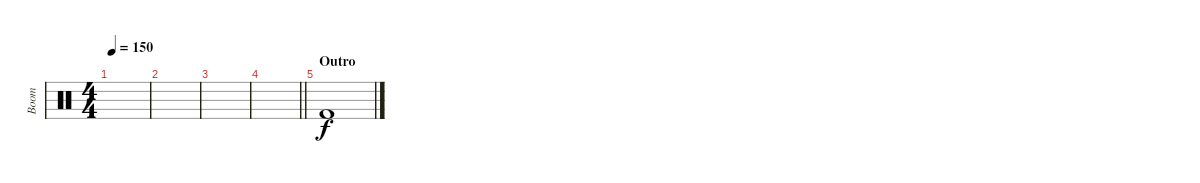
\track ("Boom" "Boom") {instrument percussion}
\staff {score}
\articulation defaults
\ts (4 4)
\tempo 150
\clef neutral
\ks c
|
|
|
\barLineRight lightlight
|
\section ("" "Outro")
"Kick (hit) 2".1
